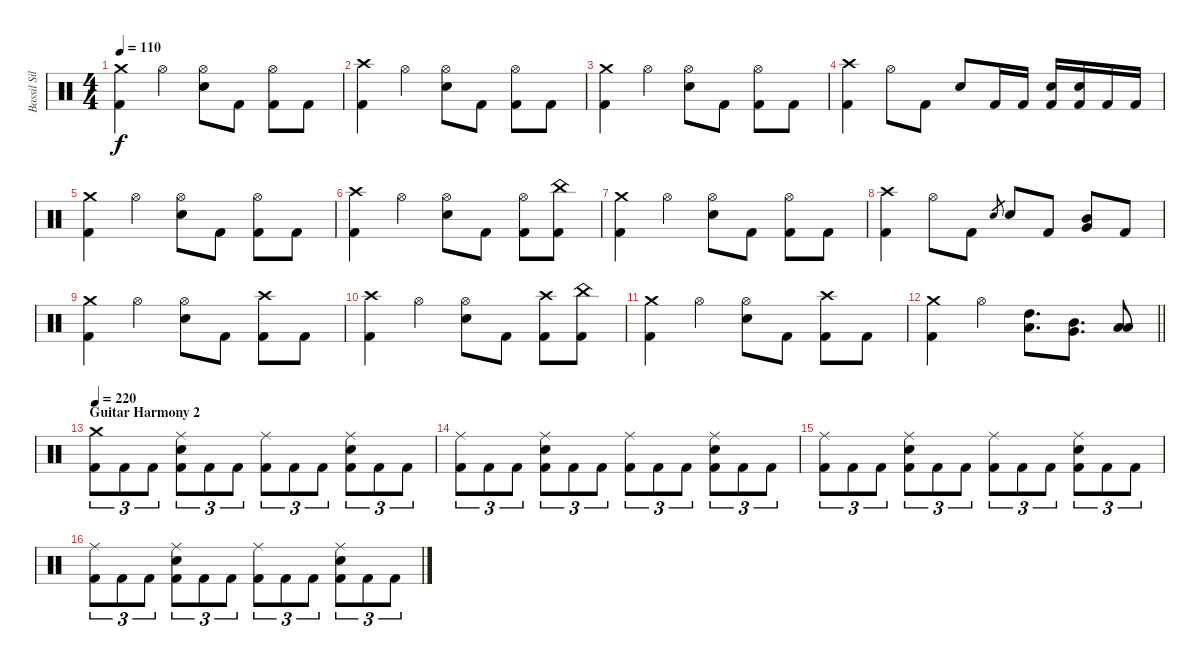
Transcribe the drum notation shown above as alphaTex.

\track ("Bassil Silver-Hajo" "Bassil Sil") {instrument percussion}
\staff {score}
\articulation defaults
\ts (4 4)
\tempo 110
\clef neutral
\ks c
("Crash medium (hit)" "Kick (hit) 2").4{dy f} "Hi-Hat (open)".4 ("Hi-Hat (open)" "Snare (hit) 2").8 "Kick (hit) 2".8 ("Hi-Hat (open)" "Kick (hit) 2").8 "Kick (hit) 2".8 |
("Crash high (hit)" "Kick (hit) 2").4 "Hi-Hat (open)".4 ("Hi-Hat (open)" "Snare (hit) 2").8 "Kick (hit) 2".8 ("Hi-Hat (open)" "Kick (hit) 2").8 "Kick (hit) 2".8 |
("Crash medium (hit)" "Kick (hit) 2").4 "Hi-Hat (open)".4 ("Hi-Hat (open)" "Snare (hit) 2").8 "Kick (hit) 2".8 ("Hi-Hat (open)" "Kick (hit) 2").8 "Kick (hit) 2".8 |
("Crash high (hit)" "Kick (hit) 2").4 "Hi-Hat (open)".8 "Kick (hit) 2".8 "Snare (hit) 2".8 "Kick (hit) 2".16 "Kick (hit) 2".16 ("Snare (hit) 2" "Kick (hit) 2").16 ("Snare (hit) 2" "Kick (hit) 2").16 "Kick (hit) 2".16 "Kick (hit) 2".16 |
("Crash medium (hit)" "Kick (hit) 2").4 "Hi-Hat (open)".4 ("Hi-Hat (open)" "Snare (hit) 2").8 "Kick (hit) 2".8 ("Hi-Hat (open)" "Kick (hit) 2").8 "Kick (hit) 2".8 |
("Crash high (hit)" "Kick (hit) 2").4 "Hi-Hat (open)".4 ("Hi-Hat (open)" "Snare (hit) 2").8 "Kick (hit) 2".8 ("Hi-Hat (open)" "Kick (hit) 2").8 ("China (hit)" "Kick (hit) 2").8 |
("Crash medium (hit)" "Kick (hit) 2").4 "Hi-Hat (open)".4 ("Hi-Hat (open)" "Snare (hit) 2").8 "Kick (hit) 2".8 ("Hi-Hat (open)" "Kick (hit) 2").8 "Kick (hit) 2".8 |
("Crash high (hit)" "Kick (hit) 2").4 "Hi-Hat (open)".8 "Kick (hit) 2".8 "Snare (hit) 2".8{gr} "Snare (hit) 2".8 "Kick (hit) 2".8 ("Mid Tom (hit)" "Very Low Tom (hit)").8 "Kick (hit) 2".8 |
("Crash medium (hit)" "Kick (hit) 2").4 "Hi-Hat (open)".4 ("Hi-Hat (open)" "Snare (hit) 2").8 "Kick (hit) 2".8 ("Crash high (hit)" "Kick (hit) 2").8 "Kick (hit) 2".8 |
("Crash high (hit)" "Kick (hit) 2").4 "Hi-Hat (open)".4 ("Hi-Hat (open)" "Snare (hit) 2").8 "Kick (hit) 2".8 ("Crash high (hit)" "Kick (hit) 2").8 ("China (hit)" "Kick (hit) 2").8 |
("Crash medium (hit)" "Kick (hit) 2").4 "Hi-Hat (open)".4 ("Hi-Hat (open)" "Snare (hit) 2").8 "Kick (hit) 2".8 ("Crash high (hit)" "Kick (hit) 2").8 "Kick (hit) 2".8 |
\barLineRight lightlight
("Crash medium (hit)" "Kick (hit) 2").4 "Hi-Hat (open)".4 ("High Tom (hit)" "Low Tom (hit)").8{d} ("Mid Tom (hit)" "Very Low Tom (hit)").8{d} ("Low Tom (hit)" "Low Floor Tom (hit)").8 |
\section ("" "Guitar Harmony 2")
\tempo 220
("Crash medium (hit)" "Kick (hit) 2").8{tu (3 2)} "Kick (hit) 2".8{tu (3 2)} "Kick (hit) 2".8{tu (3 2)} ("Ride (middle)" "Snare (hit) 2" "Kick (hit) 2").8{tu (3 2)} "Kick (hit) 2".8{tu (3 2)} "Kick (hit) 2".8{tu (3 2)} ("Ride (middle)" "Kick (hit) 2").8{tu (3 2)} "Kick (hit) 2".8{tu (3 2)} "Kick (hit) 2".8{tu (3 2)} ("Ride (middle)" "Snare (hit) 2" "Kick (hit) 2").8{tu (3 2)} "Kick (hit) 2".8{tu (3 2)} "Kick (hit) 2".8{tu (3 2)} |
("Ride (middle)" "Kick (hit) 2").8{tu (3 2)} "Kick (hit) 2".8{tu (3 2)} "Kick (hit) 2".8{tu (3 2)} ("Ride (middle)" "Snare (hit) 2" "Kick (hit) 2").8{tu (3 2)} "Kick (hit) 2".8{tu (3 2)} "Kick (hit) 2".8{tu (3 2)} ("Ride (middle)" "Kick (hit) 2").8{tu (3 2)} "Kick (hit) 2".8{tu (3 2)} "Kick (hit) 2".8{tu (3 2)} ("Ride (middle)" "Snare (hit) 2" "Kick (hit) 2").8{tu (3 2)} "Kick (hit) 2".8{tu (3 2)} "Kick (hit) 2".8{tu (3 2)} |
("Ride (middle)" "Kick (hit) 2").8{tu (3 2)} "Kick (hit) 2".8{tu (3 2)} "Kick (hit) 2".8{tu (3 2)} ("Ride (middle)" "Snare (hit) 2" "Kick (hit) 2").8{tu (3 2)} "Kick (hit) 2".8{tu (3 2)} "Kick (hit) 2".8{tu (3 2)} ("Ride (middle)" "Kick (hit) 2").8{tu (3 2)} "Kick (hit) 2".8{tu (3 2)} "Kick (hit) 2".8{tu (3 2)} ("Ride (middle)" "Snare (hit) 2" "Kick (hit) 2").8{tu (3 2)} "Kick (hit) 2".8{tu (3 2)} "Kick (hit) 2".8{tu (3 2)} |
("Ride (middle)" "Kick (hit) 2").8{tu (3 2)} "Kick (hit) 2".8{tu (3 2)} "Kick (hit) 2".8{tu (3 2)} ("Ride (middle)" "Snare (hit) 2" "Kick (hit) 2").8{tu (3 2)} "Kick (hit) 2".8{tu (3 2)} "Kick (hit) 2".8{tu (3 2)} ("Ride (middle)" "Kick (hit) 2").8{tu (3 2)} "Kick (hit) 2".8{tu (3 2)} "Kick (hit) 2".8{tu (3 2)} ("Ride (middle)" "Snare (hit) 2" "Kick (hit) 2").8{tu (3 2)} "Kick (hit) 2".8{tu (3 2)} "Kick (hit) 2".8{tu (3 2)}
